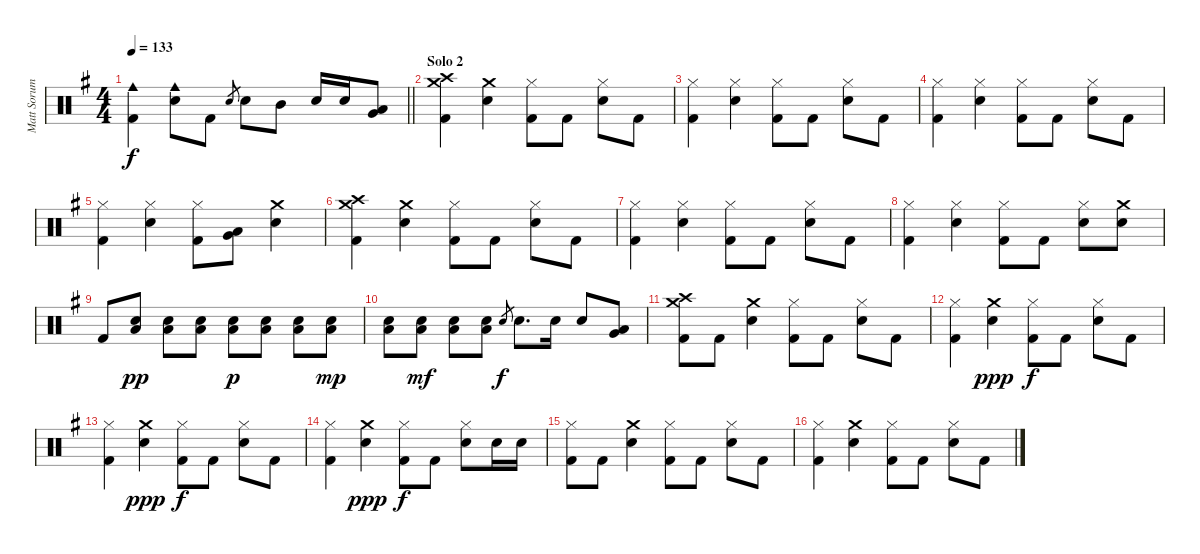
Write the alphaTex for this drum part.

\track ("Matt Sorum - Drums" "Matt Sorum") {instrument percussion}
\staff {score}
\articulation defaults
\ts (4 4)
\tempo 133
\clef neutral
\barLineRight lightlight
\ks g
("Cowbell medium (hit)" "Kick (hit) 2").4{dy f} ("Cowbell medium (hit)" "Snare (hit) 2").8 "Kick (hit) 2".8 "Snare (hit) 2".8{gr} "Snare (hit) 2".8 "Mid Tom (hit)".8 "Snare (hit) 2".16 "Snare (hit) 2".16 ("Low Tom (hit)" "Very Low Tom (hit)").8 |
\section ("" "Solo 2")
("Crash medium (hit)" "Crash high (hit)" "Kick (hit) 2").4 ("Crash medium (hit)" "Snare (hit) 2").4 ("Hi-Hat (closed)" "Kick (hit) 2").8 "Kick (hit) 2".8 ("Hi-Hat (closed)" "Snare (hit) 2").8 "Kick (hit) 2".8 |
("Hi-Hat (closed)" "Kick (hit) 2").4 ("Hi-Hat (closed)" "Snare (hit) 2").4 ("Hi-Hat (closed)" "Kick (hit) 2").8 "Kick (hit) 2".8 ("Hi-Hat (closed)" "Snare (hit) 2").8 "Kick (hit) 2".8 |
("Hi-Hat (closed)" "Kick (hit) 2").4 ("Hi-Hat (closed)" "Snare (hit) 2").4 ("Hi-Hat (closed)" "Kick (hit) 2").8 "Kick (hit) 2".8 ("Hi-Hat (closed)" "Snare (hit) 2").8 "Kick (hit) 2".8 |
("Hi-Hat (closed)" "Kick (hit) 2").4 ("Hi-Hat (closed)" "Snare (hit) 2").4 ("Hi-Hat (closed)" "Kick (hit) 2").8 ("Low Tom (hit)" "Very Low Tom (hit)").8 ("Crash medium (hit)" "Snare (hit) 2").4 |
("Crash medium (hit)" "Crash high (hit)" "Kick (hit) 2").4 ("Crash medium (hit)" "Snare (hit) 2").4 ("Hi-Hat (closed)" "Kick (hit) 2").8 "Kick (hit) 2".8 ("Hi-Hat (closed)" "Snare (hit) 2").8 "Kick (hit) 2".8 |
("Hi-Hat (closed)" "Kick (hit) 2").4 ("Hi-Hat (closed)" "Snare (hit) 2").4 ("Hi-Hat (closed)" "Kick (hit) 2").8 "Kick (hit) 2".8 ("Hi-Hat (closed)" "Snare (hit) 2").8 "Kick (hit) 2".8 |
("Hi-Hat (closed)" "Kick (hit) 2").4 ("Hi-Hat (closed)" "Snare (hit) 2").4 ("Hi-Hat (closed)" "Kick (hit) 2").8 "Kick (hit) 2".8 ("Hi-Hat (closed)" "Snare (hit) 2").8 ("Crash medium (hit)" "Snare (hit) 2").8 |
"Kick (hit) 2".8 ("Low Tom (hit)" "Snare (hit) 2").8{dy pp} ("Low Tom (hit)" "Snare (hit) 2").8 ("Low Tom (hit)" "Snare (hit) 2").8 ("Low Tom (hit)" "Snare (hit) 2").8{dy p} ("Low Tom (hit)" "Snare (hit) 2").8 ("Low Tom (hit)" "Snare (hit) 2").8 ("Low Tom (hit)" "Snare (hit) 2").8{dy mp} |
("Low Tom (hit)" "Snare (hit) 2").8 ("Low Tom (hit)" "Snare (hit) 2").8{dy mf} ("Low Tom (hit)" "Snare (hit) 2").8 ("Low Tom (hit)" "Snare (hit) 2").8 "Snare (hit) 2".8{gr dy f} "Snare (hit) 2".8{d} "Snare (hit) 2".16 "Snare (hit) 2".8 ("Low Tom (hit)" "Very Low Tom (hit)").8 |
("Crash medium (hit)" "Crash high (hit)" "Kick (hit) 2").8 "Kick (hit) 2".8 ("Crash medium (hit)" "Snare (hit) 2").4 ("Hi-Hat (closed)" "Kick (hit) 2").8 "Kick (hit) 2".8 ("Hi-Hat (closed)" "Snare (hit) 2").8 "Kick (hit) 2".8 |
("Hi-Hat (closed)" "Kick (hit) 2").4 ("Crash medium (hit)" "Snare (hit) 2").4{dy ppp} ("Hi-Hat (closed)" "Kick (hit) 2").8{dy f} "Kick (hit) 2".8 ("Hi-Hat (closed)" "Snare (hit) 2").8 "Kick (hit) 2".8 |
("Hi-Hat (closed)" "Kick (hit) 2").4 ("Crash medium (hit)" "Snare (hit) 2").4{dy ppp} ("Hi-Hat (closed)" "Kick (hit) 2").8{dy f} "Kick (hit) 2".8 ("Hi-Hat (closed)" "Snare (hit) 2").8 "Kick (hit) 2".8 |
("Hi-Hat (closed)" "Kick (hit) 2").4 ("Crash medium (hit)" "Snare (hit) 2").4{dy ppp} ("Hi-Hat (closed)" "Kick (hit) 2").8{dy f} "Kick (hit) 2".8 ("Hi-Hat (closed)" "Snare (hit) 2").8 "Snare (hit) 2".16 "Snare (hit) 2".16 |
("Hi-Hat (closed)" "Kick (hit) 2").8 "Kick (hit) 2".8 ("Crash medium (hit)" "Snare (hit) 2").4 ("Hi-Hat (closed)" "Kick (hit) 2").8 "Kick (hit) 2".8 ("Hi-Hat (closed)" "Snare (hit) 2").8 "Kick (hit) 2".8 |
("Hi-Hat (closed)" "Kick (hit) 2").4 ("Crash medium (hit)" "Snare (hit) 2").4 ("Hi-Hat (closed)" "Kick (hit) 2").8 "Kick (hit) 2".8 ("Hi-Hat (closed)" "Snare (hit) 2").8 "Kick (hit) 2".8
